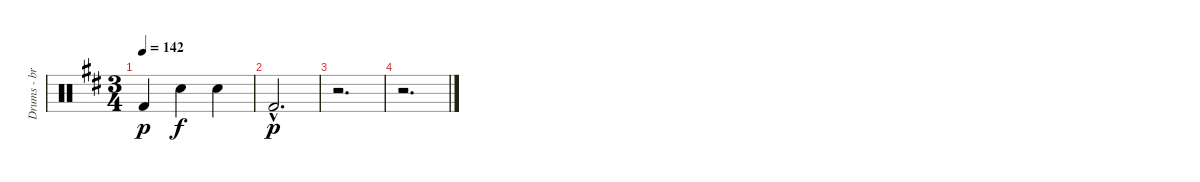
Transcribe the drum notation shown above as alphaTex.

\track ("Drums - brush set" "Drums - br") {instrument percussion}
\staff {score}
\articulation defaults
\ts (3 4)
\tempo 142
\clef neutral
\ks d "Kick (hit) 2".4{dy p} "Snare (hit) 2".4{dy f} "Snare (hit) 2".4
|
"Kick (hit) 2"{hac}.2{d dy p} |
r.2{d} |
r.2{d}
